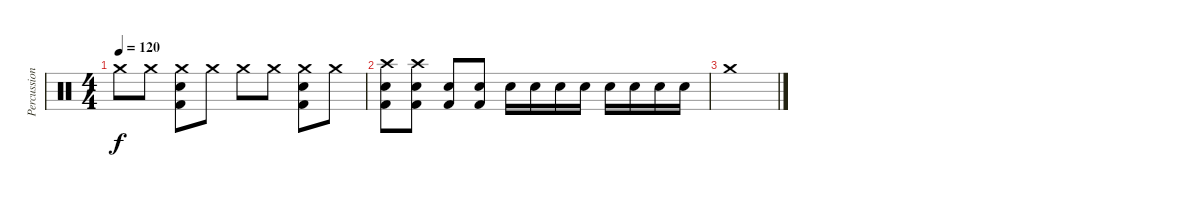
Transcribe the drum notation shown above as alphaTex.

\track ("Percussion" "Percussion") {instrument percussion}
\staff {score}
\articulation defaults
\ts (4 4)
\tempo 120
\clef neutral
\ks c "Crash medium (hit)".8{dy f} "Crash medium (hit)".8
("Crash medium (hit)" "Electric Snare (hit)" "Kick (hit) 2").8 "Crash medium (hit)".8 "Crash medium (hit)".8 "Crash medium (hit)".8 ("Crash medium (hit)" "Electric Snare (hit)" "Kick (hit) 2").8 "Crash medium (hit)".8 |
("Crash high (hit)" "Electric Snare (hit)" "Kick (hit) 2").8 ("Crash high (hit)" "Electric Snare (hit)" "Kick (hit) 2").8 ("Electric Snare (hit)" "Kick (hit) 2").8 ("Electric Snare (hit)" "Kick (hit) 2").8 "Electric Snare (hit)".16 "Electric Snare (hit)".16 "Electric Snare (hit)".16 "Electric Snare (hit)".16 "Electric Snare (hit)".16 "Electric Snare (hit)".16 "Electric Snare (hit)".16 "Electric Snare (hit)".16 |
"Crash medium (hit)".1
